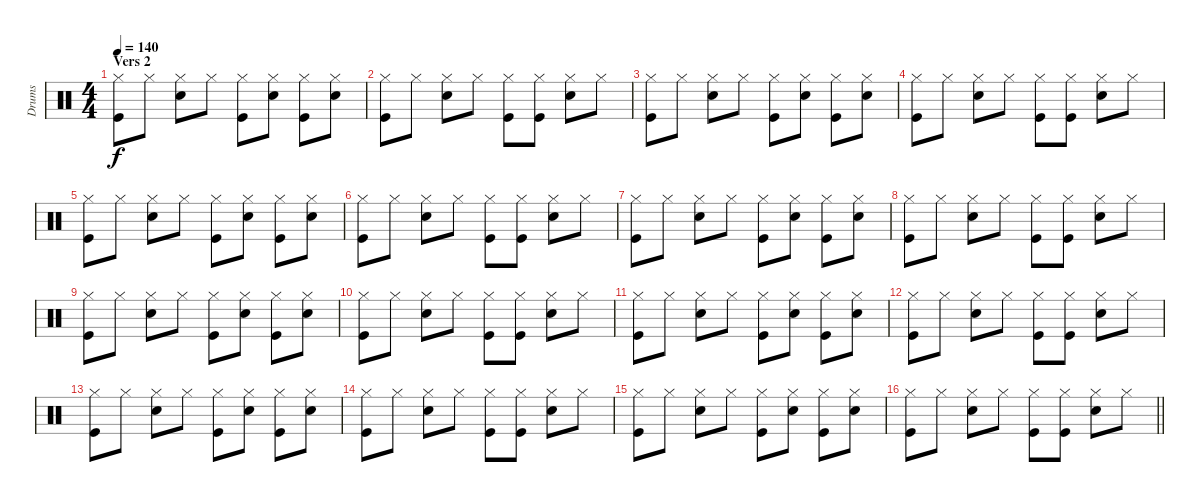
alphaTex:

\track ("Drums" "Drums") {instrument percussion}
\staff {score}
\articulation defaults
\ts (4 4)
\section ("" "Vers 2")
\tempo 140
\clef neutral
\ks c
("Hi-Hat (closed)" "Kick (hit)").8{dy f volume 6} "Hi-Hat (closed)".8 ("Hi-Hat (closed)" "Snare (hit) 2").8 "Hi-Hat (closed)".8 ("Hi-Hat (closed)" "Kick (hit)").8 ("Hi-Hat (closed)" "Snare (hit) 2").8 ("Hi-Hat (closed)" "Kick (hit)").8 ("Hi-Hat (closed)" "Snare (hit) 2").8 |
("Hi-Hat (closed)" "Kick (hit)").8 "Hi-Hat (closed)".8 ("Hi-Hat (closed)" "Snare (hit) 2").8 "Hi-Hat (closed)".8 ("Hi-Hat (closed)" "Kick (hit)").8 ("Hi-Hat (closed)" "Kick (hit)").8 ("Hi-Hat (closed)" "Snare (hit) 2").8 "Hi-Hat (closed)".8 |
("Hi-Hat (closed)" "Kick (hit)").8 "Hi-Hat (closed)".8 ("Hi-Hat (closed)" "Snare (hit) 2").8 "Hi-Hat (closed)".8 ("Hi-Hat (closed)" "Kick (hit)").8 ("Hi-Hat (closed)" "Snare (hit) 2").8 ("Hi-Hat (closed)" "Kick (hit)").8 ("Hi-Hat (closed)" "Snare (hit) 2").8 |
("Hi-Hat (closed)" "Kick (hit)").8 "Hi-Hat (closed)".8 ("Hi-Hat (closed)" "Snare (hit) 2").8 "Hi-Hat (closed)".8 ("Hi-Hat (closed)" "Kick (hit)").8 ("Hi-Hat (closed)" "Kick (hit)").8 ("Hi-Hat (closed)" "Snare (hit) 2").8 "Hi-Hat (closed)".8 |
("Hi-Hat (closed)" "Kick (hit)").8 "Hi-Hat (closed)".8 ("Hi-Hat (closed)" "Snare (hit) 2").8 "Hi-Hat (closed)".8 ("Hi-Hat (closed)" "Kick (hit)").8 ("Hi-Hat (closed)" "Snare (hit) 2").8 ("Hi-Hat (closed)" "Kick (hit)").8 ("Hi-Hat (closed)" "Snare (hit) 2").8 |
("Hi-Hat (closed)" "Kick (hit)").8 "Hi-Hat (closed)".8 ("Hi-Hat (closed)" "Snare (hit) 2").8 "Hi-Hat (closed)".8 ("Hi-Hat (closed)" "Kick (hit)").8 ("Hi-Hat (closed)" "Kick (hit)").8 ("Hi-Hat (closed)" "Snare (hit) 2").8 "Hi-Hat (closed)".8 |
("Hi-Hat (closed)" "Kick (hit)").8 "Hi-Hat (closed)".8 ("Hi-Hat (closed)" "Snare (hit) 2").8 "Hi-Hat (closed)".8 ("Hi-Hat (closed)" "Kick (hit)").8 ("Hi-Hat (closed)" "Snare (hit) 2").8 ("Hi-Hat (closed)" "Kick (hit)").8 ("Hi-Hat (closed)" "Snare (hit) 2").8 |
("Hi-Hat (closed)" "Kick (hit)").8 "Hi-Hat (closed)".8 ("Hi-Hat (closed)" "Snare (hit) 2").8 "Hi-Hat (closed)".8 ("Hi-Hat (closed)" "Kick (hit)").8 ("Hi-Hat (closed)" "Kick (hit)").8 ("Hi-Hat (closed)" "Snare (hit) 2").8 "Hi-Hat (closed)".8 |
("Hi-Hat (closed)" "Kick (hit)").8 "Hi-Hat (closed)".8 ("Hi-Hat (closed)" "Snare (hit) 2").8 "Hi-Hat (closed)".8 ("Hi-Hat (closed)" "Kick (hit)").8 ("Hi-Hat (closed)" "Snare (hit) 2").8 ("Hi-Hat (closed)" "Kick (hit)").8 ("Hi-Hat (closed)" "Snare (hit) 2").8 |
("Hi-Hat (closed)" "Kick (hit)").8 "Hi-Hat (closed)".8 ("Hi-Hat (closed)" "Snare (hit) 2").8 "Hi-Hat (closed)".8 ("Hi-Hat (closed)" "Kick (hit)").8 ("Hi-Hat (closed)" "Kick (hit)").8 ("Hi-Hat (closed)" "Snare (hit) 2").8 "Hi-Hat (closed)".8 |
("Hi-Hat (closed)" "Kick (hit)").8 "Hi-Hat (closed)".8 ("Hi-Hat (closed)" "Snare (hit) 2").8 "Hi-Hat (closed)".8 ("Hi-Hat (closed)" "Kick (hit)").8 ("Hi-Hat (closed)" "Snare (hit) 2").8 ("Hi-Hat (closed)" "Kick (hit)").8 ("Hi-Hat (closed)" "Snare (hit) 2").8 |
("Hi-Hat (closed)" "Kick (hit)").8 "Hi-Hat (closed)".8 ("Hi-Hat (closed)" "Snare (hit) 2").8 "Hi-Hat (closed)".8 ("Hi-Hat (closed)" "Kick (hit)").8 ("Hi-Hat (closed)" "Kick (hit)").8 ("Hi-Hat (closed)" "Snare (hit) 2").8 "Hi-Hat (closed)".8 |
("Hi-Hat (closed)" "Kick (hit)").8 "Hi-Hat (closed)".8 ("Hi-Hat (closed)" "Snare (hit) 2").8 "Hi-Hat (closed)".8 ("Hi-Hat (closed)" "Kick (hit)").8 ("Hi-Hat (closed)" "Snare (hit) 2").8 ("Hi-Hat (closed)" "Kick (hit)").8 ("Hi-Hat (closed)" "Snare (hit) 2").8 |
("Hi-Hat (closed)" "Kick (hit)").8 "Hi-Hat (closed)".8 ("Hi-Hat (closed)" "Snare (hit) 2").8 "Hi-Hat (closed)".8 ("Hi-Hat (closed)" "Kick (hit)").8 ("Hi-Hat (closed)" "Kick (hit)").8 ("Hi-Hat (closed)" "Snare (hit) 2").8 "Hi-Hat (closed)".8 |
("Hi-Hat (closed)" "Kick (hit)").8 "Hi-Hat (closed)".8 ("Hi-Hat (closed)" "Snare (hit) 2").8 "Hi-Hat (closed)".8 ("Hi-Hat (closed)" "Kick (hit)").8 ("Hi-Hat (closed)" "Snare (hit) 2").8 ("Hi-Hat (closed)" "Kick (hit)").8 ("Hi-Hat (closed)" "Snare (hit) 2").8 |
\barLineRight lightlight
("Hi-Hat (closed)" "Kick (hit)").8 "Hi-Hat (closed)".8 ("Hi-Hat (closed)" "Snare (hit) 2").8 "Hi-Hat (closed)".8 ("Hi-Hat (closed)" "Kick (hit)").8 ("Hi-Hat (closed)" "Kick (hit)").8 ("Hi-Hat (closed)" "Snare (hit) 2").8 "Hi-Hat (closed)".8
